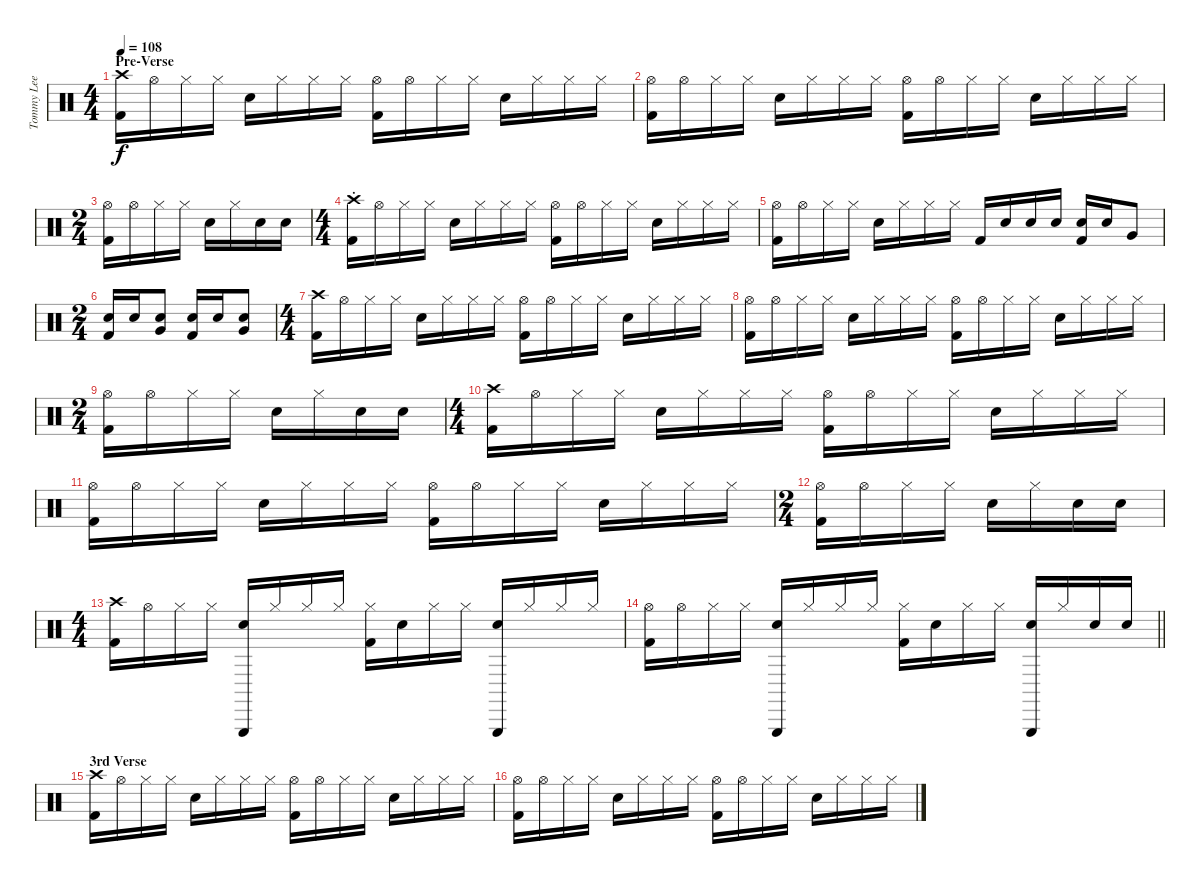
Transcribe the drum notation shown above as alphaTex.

\track ("Tommy Lee - Drums" "Tommy Lee ") {instrument percussion}
\staff {score}
\articulation defaults
\ts (4 4)
\section ("" "Pre-Verse")
\tempo 108
\clef neutral
\ks c
("Crash high (hit)" "Kick (hit) 2").16{dy f} "Hi-Hat (open)".16 "Hi-Hat (closed)".16 "Hi-Hat (closed)".16 "Snare (hit) 2".16 "Hi-Hat (closed)".16 "Hi-Hat (closed)".16 "Hi-Hat (closed)".16 ("Hi-Hat (open)" "Kick (hit) 2").16 "Hi-Hat (open)".16 "Hi-Hat (closed)".16 "Hi-Hat (closed)".16 "Snare (hit) 2".16 "Hi-Hat (closed)".16 "Hi-Hat (closed)".16 "Hi-Hat (closed)".16 |
("Hi-Hat (open)" "Kick (hit) 2").16 "Hi-Hat (open)".16 "Hi-Hat (closed)".16 "Hi-Hat (closed)".16 "Snare (hit) 2".16 "Hi-Hat (closed)".16 "Hi-Hat (closed)".16 "Hi-Hat (closed)".16 ("Hi-Hat (open)" "Kick (hit) 2").16 "Hi-Hat (open)".16 "Hi-Hat (closed)".16 "Hi-Hat (closed)".16 "Snare (hit) 2".16 "Hi-Hat (closed)".16 "Hi-Hat (closed)".16 "Hi-Hat (closed)".16 |
\ts (2 4)
("Hi-Hat (open)" "Kick (hit) 2").16 "Hi-Hat (open)".16 "Hi-Hat (closed)".16 "Hi-Hat (closed)".16 "Snare (hit) 2".16 "Hi-Hat (closed)".16 "Snare (hit) 2".16 "Snare (hit) 2".16 |
\ts (4 4)
("Crash high (hit)"{st} "Kick (hit) 2").16 "Hi-Hat (open)".16 "Hi-Hat (closed)".16 "Hi-Hat (closed)".16 "Snare (hit) 2".16 "Hi-Hat (closed)".16 "Hi-Hat (closed)".16 "Hi-Hat (closed)".16 ("Hi-Hat (open)" "Kick (hit) 2").16 "Hi-Hat (open)".16 "Hi-Hat (closed)".16 "Hi-Hat (closed)".16 "Snare (hit) 2".16 "Hi-Hat (closed)".16 "Hi-Hat (closed)".16 "Hi-Hat (closed)".16 |
("Hi-Hat (open)" "Kick (hit) 2").16 "Hi-Hat (open)".16 "Hi-Hat (closed)".16 "Hi-Hat (closed)".16 "Snare (hit) 2".16 "Hi-Hat (closed)".16 "Hi-Hat (closed)".16 "Hi-Hat (closed)".16 "Kick (hit) 2".16 "Snare (hit) 2".16 "Snare (hit) 2".16 "Snare (hit) 2".16 ("Snare (hit) 2" "Kick (hit) 2").16 "Snare (hit) 2".16 "Very Low Tom (hit)".8 |
\ts (2 4)
("Snare (hit) 2" "Kick (hit) 2").16 "Snare (hit) 2".16 ("Snare (hit) 2" "Very Low Tom (hit)").8 ("Snare (hit) 2" "Kick (hit) 2").16 "Snare (hit) 2".16 ("Snare (hit) 2" "Very Low Tom (hit)").8 |
\ts (4 4)
("Crash high (hit)" "Kick (hit) 2").16 "Hi-Hat (open)".16 "Hi-Hat (closed)".16 "Hi-Hat (closed)".16 "Snare (hit) 2".16 "Hi-Hat (closed)".16 "Hi-Hat (closed)".16 "Hi-Hat (closed)".16 ("Hi-Hat (open)" "Kick (hit) 2").16 "Hi-Hat (open)".16 "Hi-Hat (closed)".16 "Hi-Hat (closed)".16 "Snare (hit) 2".16 "Hi-Hat (closed)".16 "Hi-Hat (closed)".16 "Hi-Hat (closed)".16 |
("Hi-Hat (open)" "Kick (hit) 2").16 "Hi-Hat (open)".16 "Hi-Hat (closed)".16 "Hi-Hat (closed)".16 "Snare (hit) 2".16 "Hi-Hat (closed)".16 "Hi-Hat (closed)".16 "Hi-Hat (closed)".16 ("Hi-Hat (open)" "Kick (hit) 2").16 "Hi-Hat (open)".16 "Hi-Hat (closed)".16 "Hi-Hat (closed)".16 "Snare (hit) 2".16 "Hi-Hat (closed)".16 "Hi-Hat (closed)".16 "Hi-Hat (closed)".16 |
\ts (2 4)
("Hi-Hat (open)" "Kick (hit) 2").16 "Hi-Hat (open)".16 "Hi-Hat (closed)".16 "Hi-Hat (closed)".16 "Snare (hit) 2".16 "Hi-Hat (closed)".16 "Snare (hit) 2".16 "Snare (hit) 2".16 |
\ts (4 4)
("Crash high (hit)" "Kick (hit) 2").16 "Hi-Hat (open)".16 "Hi-Hat (closed)".16 "Hi-Hat (closed)".16 "Snare (hit) 2".16 "Hi-Hat (closed)".16 "Hi-Hat (closed)".16 "Hi-Hat (closed)".16 ("Hi-Hat (open)" "Kick (hit) 2").16 "Hi-Hat (open)".16 "Hi-Hat (closed)".16 "Hi-Hat (closed)".16 "Snare (hit) 2".16 "Hi-Hat (closed)".16 "Hi-Hat (closed)".16 "Hi-Hat (closed)".16 |
("Hi-Hat (open)" "Kick (hit) 2").16 "Hi-Hat (open)".16 "Hi-Hat (closed)".16 "Hi-Hat (closed)".16 "Snare (hit) 2".16 "Hi-Hat (closed)".16 "Hi-Hat (closed)".16 "Hi-Hat (closed)".16 ("Hi-Hat (open)" "Kick (hit) 2").16 "Hi-Hat (open)".16 "Hi-Hat (closed)".16 "Hi-Hat (closed)".16 "Snare (hit) 2".16 "Hi-Hat (closed)".16 "Hi-Hat (closed)".16 "Hi-Hat (closed)".16 |
\ts (2 4)
("Hi-Hat (open)" "Kick (hit) 2").16 "Hi-Hat (open)".16 "Hi-Hat (closed)".16 "Hi-Hat (closed)".16 "Snare (hit) 2".16 "Hi-Hat (closed)".16 "Snare (hit) 2".16 "Snare (hit) 2".16 |
\ts (4 4)
("Crash high (hit)" "Kick (hit) 2").16 "Hi-Hat (open)".16 "Hi-Hat (closed)".16 "Hi-Hat (closed)".16 ("Snare (hit) 2" "Triangle (hit)").16 "Hi-Hat (closed)".16 "Hi-Hat (closed)".16 "Hi-Hat (closed)".16 ("Hi-Hat (closed)" "Kick (hit) 2").16 "Snare (hit) 2".16 "Hi-Hat (closed)".16 "Hi-Hat (closed)".16 ("Snare (hit) 2" "Triangle (hit)").16 "Hi-Hat (closed)".16 "Hi-Hat (closed)".16 "Hi-Hat (closed)".16 |
\barLineRight lightlight
("Hi-Hat (open)" "Kick (hit) 2").16 "Hi-Hat (open)".16 "Hi-Hat (closed)".16 "Hi-Hat (closed)".16 ("Snare (hit) 2" "Triangle (hit)").16 "Hi-Hat (closed)".16 "Hi-Hat (closed)".16 "Hi-Hat (closed)".16 ("Hi-Hat (closed)" "Kick (hit) 2").16 "Snare (hit) 2".16 "Hi-Hat (closed)".16 "Hi-Hat (closed)".16 ("Snare (hit) 2" "Triangle (hit)").16 "Hi-Hat (closed)".16 "Snare (hit) 2".16 "Snare (hit) 2".16 |
\section ("" "3rd Verse")
("Crash high (hit)" "Kick (hit) 2").16 "Hi-Hat (open)".16 "Hi-Hat (closed)".16 "Hi-Hat (closed)".16 "Snare (hit) 2".16 "Hi-Hat (closed)".16 "Hi-Hat (closed)".16 "Hi-Hat (closed)".16 ("Hi-Hat (open)" "Kick (hit) 2").16 "Hi-Hat (open)".16 "Hi-Hat (closed)".16 "Hi-Hat (closed)".16 "Snare (hit) 2".16 "Hi-Hat (closed)".16 "Hi-Hat (closed)".16 "Hi-Hat (closed)".16 |
("Hi-Hat (open)" "Kick (hit) 2").16 "Hi-Hat (open)".16 "Hi-Hat (closed)".16 "Hi-Hat (closed)".16 "Snare (hit) 2".16 "Hi-Hat (closed)".16 "Hi-Hat (closed)".16 "Hi-Hat (closed)".16 ("Hi-Hat (open)" "Kick (hit) 2").16 "Hi-Hat (open)".16 "Hi-Hat (closed)".16 "Hi-Hat (closed)".16 "Snare (hit) 2".16 "Hi-Hat (closed)".16 "Hi-Hat (closed)".16 "Hi-Hat (closed)".16
